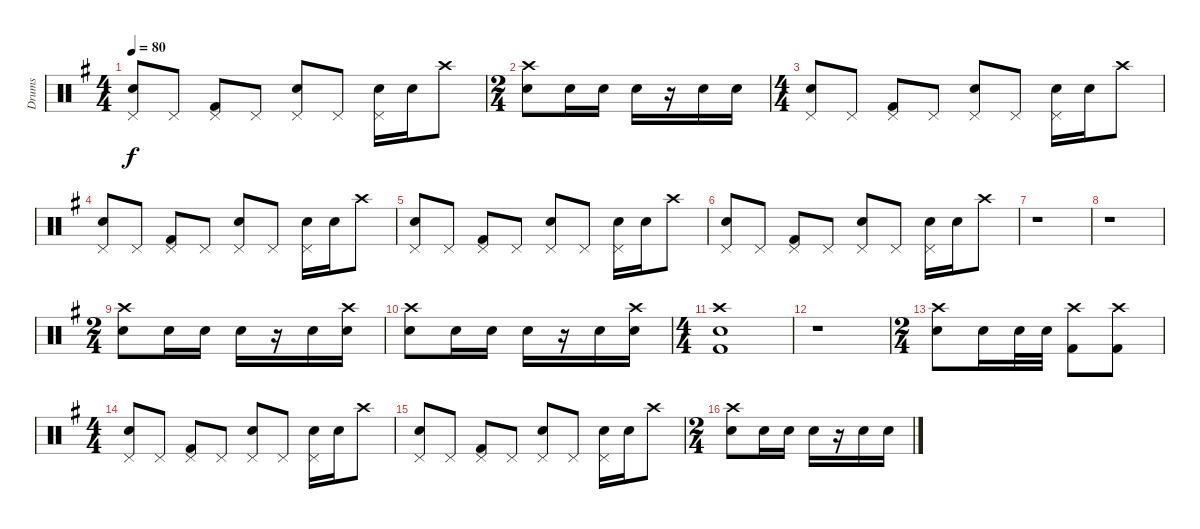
\track ("Drums" "Drums") {instrument percussion}
\staff {score}
\articulation defaults
\ts (4 4)
\tempo 80
\clef neutral
\ks eminor
("Pedal Hi-Hat (hit)" "Snare (hit) 2").8{dy f} "Pedal Hi-Hat (hit)".8 ("Pedal Hi-Hat (hit)" "Kick (hit) 2").8 "Pedal Hi-Hat (hit)".8 ("Pedal Hi-Hat (hit)" "Snare (hit) 2").8 "Pedal Hi-Hat (hit)".8 ("Pedal Hi-Hat (hit)" "Snare (hit) 2").16 "Snare (hit) 2".16 "Crash high (hit)".8 |
\ts (2 4)
("Snare (hit) 2" "Crash high (hit)").8 "Snare (hit) 2".16 "Snare (hit) 2".16 "Snare (hit) 2".16 r.16 "Snare (hit) 2".16 "Snare (hit) 2".16 |
\ts (4 4)
("Pedal Hi-Hat (hit)" "Snare (hit) 2").8 "Pedal Hi-Hat (hit)".8 ("Pedal Hi-Hat (hit)" "Kick (hit) 2").8 "Pedal Hi-Hat (hit)".8 ("Pedal Hi-Hat (hit)" "Snare (hit) 2").8 "Pedal Hi-Hat (hit)".8 ("Pedal Hi-Hat (hit)" "Snare (hit) 2").16 "Snare (hit) 2".16 "Crash high (hit)".8 |
("Pedal Hi-Hat (hit)" "Snare (hit) 2").8 "Pedal Hi-Hat (hit)".8 ("Pedal Hi-Hat (hit)" "Kick (hit) 2").8 "Pedal Hi-Hat (hit)".8 ("Pedal Hi-Hat (hit)" "Snare (hit) 2").8 "Pedal Hi-Hat (hit)".8 ("Pedal Hi-Hat (hit)" "Snare (hit) 2").16 "Snare (hit) 2".16 "Crash high (hit)".8 |
("Pedal Hi-Hat (hit)" "Snare (hit) 2").8 "Pedal Hi-Hat (hit)".8 ("Pedal Hi-Hat (hit)" "Kick (hit) 2").8 "Pedal Hi-Hat (hit)".8 ("Pedal Hi-Hat (hit)" "Snare (hit) 2").8 "Pedal Hi-Hat (hit)".8 ("Pedal Hi-Hat (hit)" "Snare (hit) 2").16 "Snare (hit) 2".16 "Crash high (hit)".8 |
("Pedal Hi-Hat (hit)" "Snare (hit) 2").8 "Pedal Hi-Hat (hit)".8 ("Pedal Hi-Hat (hit)" "Kick (hit) 2").8 "Pedal Hi-Hat (hit)".8 ("Pedal Hi-Hat (hit)" "Snare (hit) 2").8 "Pedal Hi-Hat (hit)".8 ("Pedal Hi-Hat (hit)" "Snare (hit) 2").16 "Snare (hit) 2".16 "Crash high (hit)".8 |
r.1 |
r.1 |
\ts (2 4)
("Snare (hit) 2" "Crash high (hit)").8 "Snare (hit) 2".16 "Snare (hit) 2".16 "Snare (hit) 2".16 r.16 "Snare (hit) 2".16 ("Snare (hit) 2" "Crash high (hit)").16 |
("Snare (hit) 2" "Crash high (hit)").8 "Snare (hit) 2".16 "Snare (hit) 2".16 "Snare (hit) 2".16 r.16 "Snare (hit) 2".16 ("Snare (hit) 2" "Crash high (hit)").16 |
\ts (4 4)
("Kick (hit) 2" "Snare (hit) 2" "Crash high (hit)").1 |
r.1 |
\ts (2 4)
("Snare (hit) 2" "Crash high (hit)").8 "Snare (hit) 2".16 "Snare (hit) 2".32 "Snare (hit) 2".32 ("Kick (hit) 2" "Crash high (hit)").8 ("Kick (hit) 2" "Crash high (hit)").8 |
\ts (4 4)
("Pedal Hi-Hat (hit)" "Snare (hit) 2").8 "Pedal Hi-Hat (hit)".8 ("Pedal Hi-Hat (hit)" "Kick (hit) 2").8 "Pedal Hi-Hat (hit)".8 ("Pedal Hi-Hat (hit)" "Snare (hit) 2").8 "Pedal Hi-Hat (hit)".8 ("Pedal Hi-Hat (hit)" "Snare (hit) 2").16 "Snare (hit) 2".16 "Crash high (hit)".8 |
("Pedal Hi-Hat (hit)" "Snare (hit) 2").8 "Pedal Hi-Hat (hit)".8 ("Pedal Hi-Hat (hit)" "Kick (hit) 2").8 "Pedal Hi-Hat (hit)".8 ("Pedal Hi-Hat (hit)" "Snare (hit) 2").8 "Pedal Hi-Hat (hit)".8 ("Pedal Hi-Hat (hit)" "Snare (hit) 2").16 "Snare (hit) 2".16 "Crash high (hit)".8 |
\ts (2 4)
("Snare (hit) 2" "Crash high (hit)").8 "Snare (hit) 2".16 "Snare (hit) 2".16 "Snare (hit) 2".16 r.16 "Snare (hit) 2".16 "Snare (hit) 2".16
